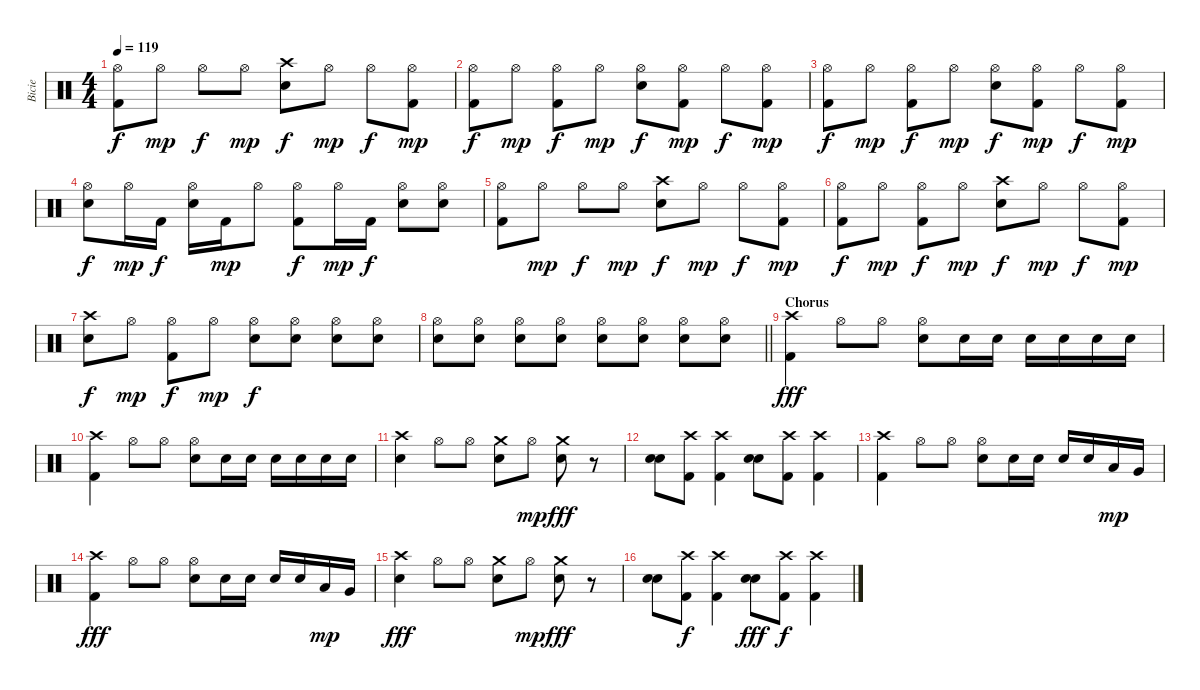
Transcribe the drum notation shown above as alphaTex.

\track ("Bicie" "Bicie") {instrument percussion}
\staff {score}
\articulation defaults
\ts (4 4)
\tempo 119
\clef neutral
\ks c
("Hi-Hat (open)" "Kick (hit) 2").8{dy f} "Hi-Hat (open)".8{dy mp} "Hi-Hat (open)".8{dy f} "Hi-Hat (open)".8{dy mp} ("Crash high (hit)" "Snare (hit) 2").8{dy f} "Hi-Hat (open)".8{dy mp} "Hi-Hat (open)".8{dy f} ("Hi-Hat (open)" "Kick (hit) 2").8{dy mp} |
("Hi-Hat (open)" "Kick (hit) 2").8{dy f} "Hi-Hat (open)".8{dy mp} ("Hi-Hat (open)" "Kick (hit) 2").8{dy f} "Hi-Hat (open)".8{dy mp} ("Hi-Hat (open)" "Snare (hit) 2").8{dy f} ("Hi-Hat (open)" "Kick (hit) 2").8{dy mp} "Hi-Hat (open)".8{dy f} ("Hi-Hat (open)" "Kick (hit) 2").8{dy mp} |
("Hi-Hat (open)" "Kick (hit) 2").8{dy f} "Hi-Hat (open)".8{dy mp} ("Hi-Hat (open)" "Kick (hit) 2").8{dy f} "Hi-Hat (open)".8{dy mp} ("Hi-Hat (open)" "Snare (hit) 2").8{dy f} ("Hi-Hat (open)" "Kick (hit) 2").8{dy mp} "Hi-Hat (open)".8{dy f} ("Hi-Hat (open)" "Kick (hit) 2").8{dy mp} |
("Hi-Hat (open)" "Snare (hit) 2").8{dy f} "Hi-Hat (open)".16{dy mp} "Kick (hit) 2".16{dy f} ("Hi-Hat (open)" "Snare (hit) 2").16 "Kick (hit) 2".16{dy mp} "Hi-Hat (open)".8 ("Hi-Hat (open)" "Kick (hit) 2").8{dy f} "Hi-Hat (open)".16{dy mp} "Kick (hit) 2".16{dy f} ("Hi-Hat (open)" "Snare (hit) 2").8 ("Hi-Hat (open)" "Snare (hit) 2").8 |
("Hi-Hat (open)" "Kick (hit) 2").8 "Hi-Hat (open)".8{dy mp} "Hi-Hat (open)".8{dy f} "Hi-Hat (open)".8{dy mp} ("Crash high (hit)" "Snare (hit) 2").8{dy f} "Hi-Hat (open)".8{dy mp} "Hi-Hat (open)".8{dy f} ("Hi-Hat (open)" "Kick (hit) 2").8{dy mp} |
("Hi-Hat (open)" "Kick (hit) 2").8{dy f} "Hi-Hat (open)".8{dy mp} ("Hi-Hat (open)" "Kick (hit) 2").8{dy f} "Hi-Hat (open)".8{dy mp} ("Crash high (hit)" "Snare (hit) 2").8{dy f} "Hi-Hat (open)".8{dy mp} "Hi-Hat (open)".8{dy f} ("Hi-Hat (open)" "Kick (hit) 2").8{dy mp} |
("Crash high (hit)" "Snare (hit) 2").8{dy f} "Hi-Hat (open)".8{dy mp} ("Hi-Hat (open)" "Kick (hit) 2").8{dy f} "Hi-Hat (open)".8{dy mp} ("Hi-Hat (open)" "Snare (hit) 2").8{dy f} ("Hi-Hat (open)" "Snare (hit) 2").8 ("Hi-Hat (open)" "Snare (hit) 2").8 ("Hi-Hat (open)" "Snare (hit) 2").8 |
\barLineRight lightlight
("Hi-Hat (open)" "Snare (hit) 2").8 ("Hi-Hat (open)" "Snare (hit) 2").8 ("Hi-Hat (open)" "Snare (hit) 2").8 ("Hi-Hat (open)" "Snare (hit) 2").8 ("Hi-Hat (open)" "Snare (hit) 2").8 ("Hi-Hat (open)" "Snare (hit) 2").8 ("Hi-Hat (open)" "Snare (hit) 2").8 ("Hi-Hat (open)" "Snare (hit) 2").8 |
\section ("" "Chorus")
("Crash high (hit)" "Kick (hit) 2").4{dy fff} "Hi-Hat (open)".8 "Hi-Hat (open)".8 ("Hi-Hat (open)" "Snare (hit) 2").8 "Snare (hit) 2".16 "Snare (hit) 2".16 "Snare (hit) 2".16 "Snare (hit) 2".16 "Snare (hit) 2".16 "Snare (hit) 2".16 |
("Crash high (hit)" "Kick (hit) 2").4 "Hi-Hat (open)".8 "Hi-Hat (open)".8 ("Hi-Hat (open)" "Snare (hit) 2").8 "Snare (hit) 2".16 "Snare (hit) 2".16 "Snare (hit) 2".16 "Snare (hit) 2".16 "Snare (hit) 2".16 "Snare (hit) 2".16 |
("Crash high (hit)" "Snare (hit) 2").4 "Hi-Hat (open)".8 "Hi-Hat (open)".8 ("Crash medium (hit)" "Snare (hit) 2").8 "Hi-Hat (open)".8{dy mp} ("Crash medium (hit)" "Snare (hit) 2").8{dy fff} r.8 |
("Snare (hit) 2" "Snare (hit) 2").8 ("Crash high (hit)" "Kick (hit) 2").8 ("Crash high (hit)" "Kick (hit) 2").4 ("Snare (hit) 2" "Snare (hit) 2").8 ("Crash high (hit)" "Kick (hit) 2").8 ("Crash high (hit)" "Kick (hit) 2").4 |
("Crash high (hit)" "Kick (hit) 2").4 "Hi-Hat (open)".8 "Hi-Hat (open)".8 ("Hi-Hat (open)" "Snare (hit) 2").8 "Snare (hit) 2".16 "Snare (hit) 2".16 "Snare (hit) 2".16 "Snare (hit) 2".16 "Low Tom (hit)".16{dy mp} "Very Low Tom (hit)".16 |
("Crash high (hit)" "Kick (hit) 2").4{dy fff} "Hi-Hat (open)".8 "Hi-Hat (open)".8 ("Hi-Hat (open)" "Snare (hit) 2").8 "Snare (hit) 2".16 "Snare (hit) 2".16 "Snare (hit) 2".16 "Snare (hit) 2".16 "Low Tom (hit)".16{dy mp} "Very Low Tom (hit)".16 |
("Crash high (hit)" "Snare (hit) 2").4{dy fff} "Hi-Hat (open)".8 "Hi-Hat (open)".8 ("Crash medium (hit)" "Snare (hit) 2").8 "Hi-Hat (open)".8{dy mp} ("Crash medium (hit)" "Snare (hit) 2").8{dy fff} r.8 |
("Snare (hit) 2" "Snare (hit) 2").8 ("Crash high (hit)" "Kick (hit) 2").8{dy f} ("Crash high (hit)" "Kick (hit) 2").4 ("Snare (hit) 2" "Snare (hit) 2").8{dy fff} ("Crash high (hit)" "Kick (hit) 2").8{dy f} ("Crash high (hit)" "Kick (hit) 2").4
